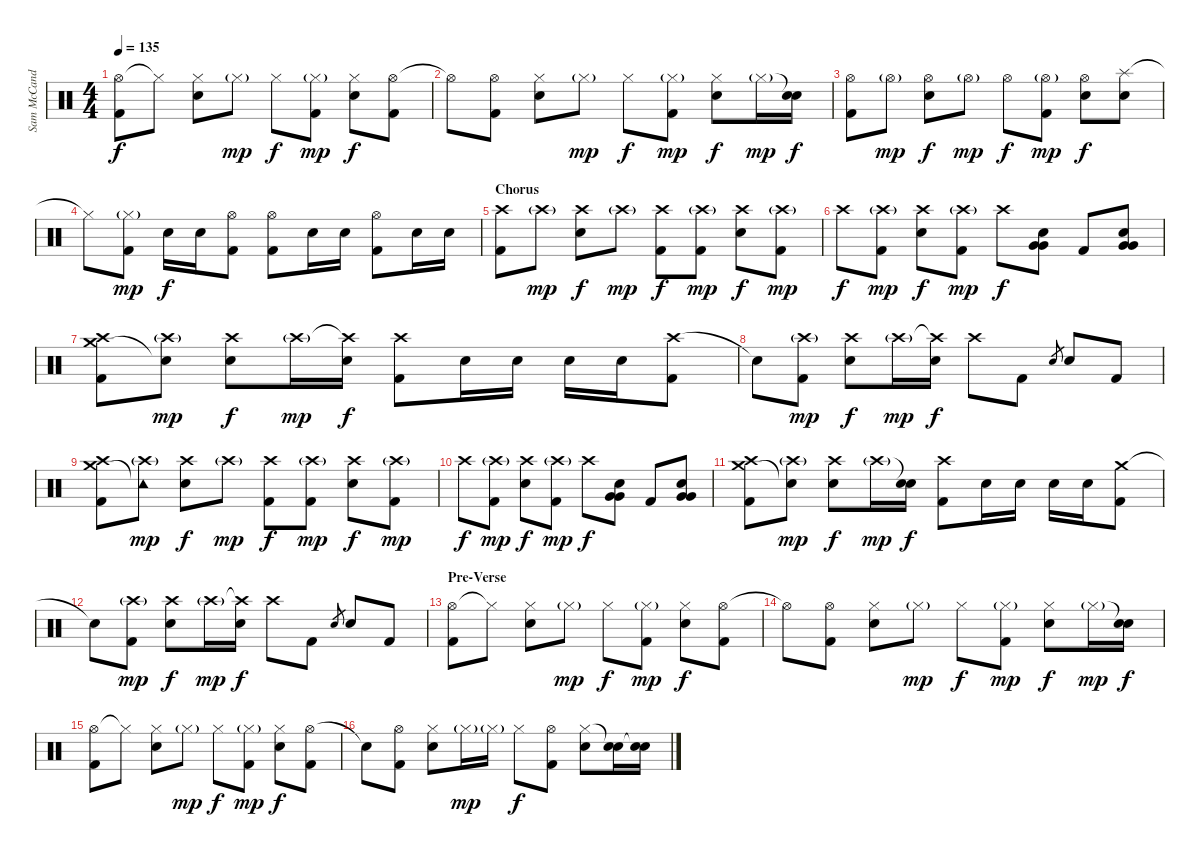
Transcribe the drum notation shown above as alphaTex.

\track ("Sam McCandless (Drums)" "Sam McCand") {instrument percussion}
\staff {score}
\articulation defaults
\ts (4 4)
\tempo 135
\clef neutral
\ks c
("Hi-Hat (open)" "Kick (hit) 2").8{dy f} "Hi-Hat (closed)"{t}.8 ("Hi-Hat (closed)" "Electric Snare (hit)").8 "Hi-Hat (closed)"{g}.8{dy mp} "Hi-Hat (closed)".8{dy f} ("Hi-Hat (closed)"{g} "Kick (hit) 2").8{dy mp} ("Hi-Hat (closed)" "Electric Snare (hit)").8{dy f} ("Hi-Hat (open)" "Kick (hit) 2").8 |
"Hi-Hat (open)"{t}.8 ("Hi-Hat (open)" "Kick (hit) 2").8 ("Hi-Hat (closed)" "Electric Snare (hit)").8 "Hi-Hat (closed)"{g}.8{dy mp} "Hi-Hat (closed)".8{dy f} ("Hi-Hat (closed)"{g} "Kick (hit) 2").8{dy mp} ("Hi-Hat (closed)" "Electric Snare (hit)").8{dy f} "Hi-Hat (closed)"{g}.16{dy mp} ("Snare (hit)"{t} "Electric Snare (hit)").16{dy f} |
("Hi-Hat (open)" "Kick (hit) 2").8 "Hi-Hat (open)"{g}.8{dy mp} ("Hi-Hat (open)" "Electric Snare (hit)").8{dy f} "Hi-Hat (open)"{g}.8{dy mp} "Hi-Hat (open)".8{dy f} ("Hi-Hat (open)"{g} "Kick (hit) 2").8{dy mp} ("Hi-Hat (open)" "Electric Snare (hit)").8{dy f} ("Splash (hit)" "Electric Snare (hit)").8 |
"Hi-Hat (closed)"{t}.8 ("Hi-Hat (closed)"{g} "Kick (hit) 2").8{dy mp} "Electric Snare (hit)".16{dy f} "Electric Snare (hit)".16 ("Hi-Hat (open)" "Kick (hit) 2").8 ("Hi-Hat (open)" "Kick (hit) 2").8 "Electric Snare (hit)".16 "Electric Snare (hit)".16 ("Hi-Hat (open)" "Kick (hit) 2").8 "Electric Snare (hit)".16 "Electric Snare (hit)".16 |
\section ("" "Chorus")
("Crash high (hit)" "Kick (hit) 2").8 "Crash high (hit)"{g}.8{dy mp} ("Crash high (hit)" "Electric Snare (hit)").8{dy f} "Crash high (hit)"{g}.8{dy mp} ("Crash high (hit)" "Kick (hit) 2").8{dy f} ("Crash high (hit)"{g} "Kick (hit) 2").8{dy mp} ("Crash high (hit)" "Electric Snare (hit)").8{dy f} ("Crash high (hit)"{g} "Kick (hit) 2").8{dy mp} |
"Crash high (hit)".8{dy f} ("Crash high (hit)"{g} "Kick (hit) 2").8{dy mp} ("Crash high (hit)" "Electric Snare (hit)").8{dy f} ("Crash high (hit)"{g} "Kick (hit) 2").8{dy mp} "Crash high (hit)".8{dy f} ("Electric Snare (hit)" "Very Low Tom (hit)" "Very Low Tom (hit)").8 "Kick (hit) 2".8 ("Electric Snare (hit)" "Very Low Tom (hit)" "Very Low Tom (hit)").8 |
("Crash high (hit)" "Crash medium (hit)" "Kick (hit) 2").8 ("Crash high (hit)"{g} "Snare (hit)"{t}).8{dy mp} ("Crash high (hit)" "Electric Snare (hit)").8{dy f} "Crash high (hit)"{g}.16{dy mp} ("Crash high (hit)"{t} "Electric Snare (hit)").16{dy f} ("Crash high (hit)" "Kick (hit) 2").8 "Electric Snare (hit)".16 "Electric Snare (hit)".16 "Electric Snare (hit)".16 "Electric Snare (hit)".16 ("Crash high (hit)" "Kick (hit) 2").8 |
"Snare (hit)"{t}.8 ("Crash high (hit)"{g} "Kick (hit) 2").8{dy mp} ("Crash high (hit)" "Electric Snare (hit)").8{dy f} "Crash high (hit)"{g}.16{dy mp} ("Crash high (hit)"{t} "Electric Snare (hit)").16{dy f} "Crash high (hit)".8 "Kick (hit) 2".8 "Electric Snare (hit)".8{gr} "Electric Snare (hit)".8 "Kick (hit) 2".8 |
("Crash high (hit)" "Crash medium (hit)" "Kick (hit) 2").8 ("Crash high (hit)"{g} "Tambourine (hit)"{t}).8{dy mp} ("Crash high (hit)" "Electric Snare (hit)").8{dy f} "Crash high (hit)"{g}.8{dy mp} ("Crash high (hit)" "Kick (hit) 2").8{dy f} ("Crash high (hit)"{g} "Kick (hit) 2").8{dy mp} ("Crash high (hit)" "Electric Snare (hit)").8{dy f} ("Crash high (hit)"{g} "Kick (hit) 2").8{dy mp} |
"Crash high (hit)".8{dy f} ("Crash high (hit)"{g} "Kick (hit) 2").8{dy mp} ("Crash high (hit)" "Electric Snare (hit)").8{dy f} ("Crash high (hit)"{g} "Kick (hit) 2").8{dy mp} "Crash high (hit)".8{dy f} ("Electric Snare (hit)" "Very Low Tom (hit)" "Very Low Tom (hit)").8 "Kick (hit) 2".8 ("Electric Snare (hit)" "Very Low Tom (hit)" "Very Low Tom (hit)").8 |
("Crash high (hit)" "Crash medium (hit)" "Kick (hit) 2").8 ("Crash high (hit)"{g} "Snare (hit)"{t}).8{dy mp} ("Crash high (hit)" "Electric Snare (hit)").8{dy f} "Crash high (hit)"{g}.16{dy mp} ("Snare (hit)"{t} "Electric Snare (hit)").16{dy f} ("Crash high (hit)" "Kick (hit) 2").8 "Electric Snare (hit)".16 "Electric Snare (hit)".16 "Electric Snare (hit)".16 "Electric Snare (hit)".16 ("Crash medium (hit)" "Kick (hit) 2").8 |
"Snare (hit)"{t}.8 ("Crash high (hit)"{g} "Kick (hit) 2").8{dy mp} ("Crash high (hit)" "Electric Snare (hit)").8{dy f} "Crash high (hit)"{g}.16{dy mp} ("Crash high (hit)"{t} "Electric Snare (hit)").16{dy f} "Crash high (hit)".8 "Kick (hit) 2".8 "Electric Snare (hit)".8{gr} "Electric Snare (hit)".8 "Kick (hit) 2".8 |
\section ("" "Pre-Verse")
("Hi-Hat (open)" "Kick (hit) 2").8 "Hi-Hat (closed)"{t}.8 ("Hi-Hat (closed)" "Electric Snare (hit)").8 "Hi-Hat (closed)"{g}.8{dy mp} "Hi-Hat (closed)".8{dy f} ("Hi-Hat (closed)"{g} "Kick (hit) 2").8{dy mp} ("Hi-Hat (closed)" "Electric Snare (hit)").8{dy f} ("Hi-Hat (open)" "Kick (hit) 2").8 |
"Hi-Hat (open)"{t}.8 ("Hi-Hat (open)" "Kick (hit) 2").8 ("Hi-Hat (closed)" "Electric Snare (hit)").8 "Hi-Hat (closed)"{g}.8{dy mp} "Hi-Hat (closed)".8{dy f} ("Hi-Hat (closed)"{g} "Kick (hit) 2").8{dy mp} ("Hi-Hat (closed)" "Electric Snare (hit)").8{dy f} "Hi-Hat (closed)"{g}.16{dy mp} ("Snare (hit)"{t} "Electric Snare (hit)").16{dy f} |
("Hi-Hat (open)" "Kick (hit) 2").8 "Hi-Hat (closed)"{t}.8 ("Hi-Hat (closed)" "Electric Snare (hit)").8 "Hi-Hat (closed)"{g}.8{dy mp} "Hi-Hat (closed)".8{dy f} ("Hi-Hat (closed)"{g} "Kick (hit) 2").8{dy mp} ("Hi-Hat (closed)" "Electric Snare (hit)").8{dy f} ("Hi-Hat (open)" "Kick (hit) 2").8 |
"Snare (hit)"{t}.8 ("Hi-Hat (open)" "Kick (hit) 2").8 ("Hi-Hat (closed)" "Electric Snare (hit)").8 "Hi-Hat (closed)"{g}.16{dy mp} "Hi-Hat (closed)"{g}.16 "Hi-Hat (closed)".8{dy f} ("Hi-Hat (open)" "Kick (hit) 2").8 ("Hi-Hat (closed)" "Electric Snare (hit)").8 ("Snare (hit)"{t} "Electric Snare (hit)").16 ("Snare (hit)"{t} "Electric Snare (hit)").16
